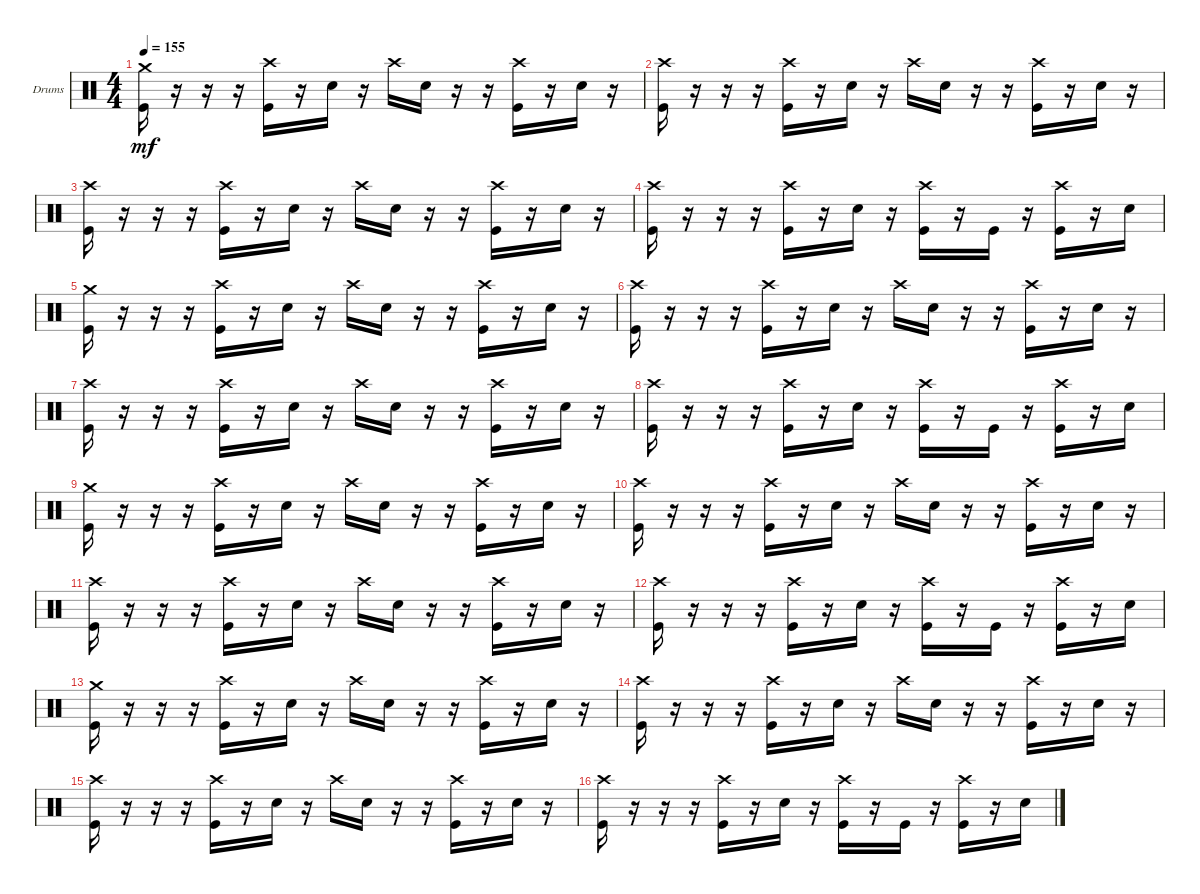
\defaultSystemsLayout 4
\bracketExtendMode groupsimilarinstruments
\firstSystemTrackNameOrientation horizontal
\otherSystemsTrackNameOrientation horizontal
\track ("Drumkit" "Drums") {instrument percussion}
\staff {score}
\articulation defaults
\ts (4 4)
\tempo 155
\clef neutral
\ks c
("Kick (hit)" "Crash medium (hit)").16{dy mf} r.16 r.16 r.16 ("Kick (hit)" "Crash high (hit)").16 r.16 "Snare (hit) 2".16 r.16 "Crash high (hit)".16 "Snare (hit) 2".16 r.16 r.16 ("Crash high (hit)" "Kick (hit)").16 r.16 "Snare (hit) 2".16 r.16 |
("Kick (hit)" "Crash high (hit)").16 r.16 r.16 r.16 ("Kick (hit)" "Crash high (hit)").16 r.16 "Snare (hit) 2".16 r.16 "Crash high (hit)".16 "Snare (hit) 2".16 r.16 r.16 ("Crash high (hit)" "Kick (hit)").16 r.16 "Snare (hit) 2".16 r.16 |
("Kick (hit)" "Crash high (hit)").16 r.16 r.16 r.16 ("Kick (hit)" "Crash high (hit)").16 r.16 "Snare (hit) 2".16 r.16 "Crash high (hit)".16 "Snare (hit) 2".16 r.16 r.16 ("Crash high (hit)" "Kick (hit)").16 r.16 "Snare (hit) 2".16 r.16 |
("Kick (hit)" "Crash high (hit)").16 r.16 r.16 r.16 ("Kick (hit)" "Crash high (hit)").16 r.16 "Snare (hit) 2".16 r.16 ("Kick (hit)" "Crash high (hit)").16 r.16 "Kick (hit)".16 r.16 ("Kick (hit)" "Crash high (hit)").16 r.16 "Snare (hit) 2".16 |
("Kick (hit)" "Crash medium (hit)").16 r.16 r.16 r.16 ("Kick (hit)" "Crash high (hit)").16 r.16 "Snare (hit) 2".16 r.16 "Crash high (hit)".16 "Snare (hit) 2".16 r.16 r.16 ("Crash high (hit)" "Kick (hit)").16 r.16 "Snare (hit) 2".16 r.16 |
("Kick (hit)" "Crash high (hit)").16 r.16 r.16 r.16 ("Kick (hit)" "Crash high (hit)").16 r.16 "Snare (hit) 2".16 r.16 "Crash high (hit)".16 "Snare (hit) 2".16 r.16 r.16 ("Crash high (hit)" "Kick (hit)").16 r.16 "Snare (hit) 2".16 r.16 |
("Kick (hit)" "Crash high (hit)").16 r.16 r.16 r.16 ("Kick (hit)" "Crash high (hit)").16 r.16 "Snare (hit) 2".16 r.16 "Crash high (hit)".16 "Snare (hit) 2".16 r.16 r.16 ("Crash high (hit)" "Kick (hit)").16 r.16 "Snare (hit) 2".16 r.16 |
("Kick (hit)" "Crash high (hit)").16 r.16 r.16 r.16 ("Kick (hit)" "Crash high (hit)").16 r.16 "Snare (hit) 2".16 r.16 ("Kick (hit)" "Crash high (hit)").16 r.16 "Kick (hit)".16 r.16 ("Kick (hit)" "Crash high (hit)").16 r.16 "Snare (hit) 2".16 |
("Kick (hit)" "Crash medium (hit)").16 r.16 r.16 r.16 ("Kick (hit)" "Crash high (hit)").16 r.16 "Snare (hit) 2".16 r.16 "Crash high (hit)".16 "Snare (hit) 2".16 r.16 r.16 ("Crash high (hit)" "Kick (hit)").16 r.16 "Snare (hit) 2".16 r.16 |
("Kick (hit)" "Crash high (hit)").16 r.16 r.16 r.16 ("Kick (hit)" "Crash high (hit)").16 r.16 "Snare (hit) 2".16 r.16 "Crash high (hit)".16 "Snare (hit) 2".16 r.16 r.16 ("Crash high (hit)" "Kick (hit)").16 r.16 "Snare (hit) 2".16 r.16 |
("Kick (hit)" "Crash high (hit)").16 r.16 r.16 r.16 ("Kick (hit)" "Crash high (hit)").16 r.16 "Snare (hit) 2".16 r.16 "Crash high (hit)".16 "Snare (hit) 2".16 r.16 r.16 ("Crash high (hit)" "Kick (hit)").16 r.16 "Snare (hit) 2".16 r.16 |
("Kick (hit)" "Crash high (hit)").16 r.16 r.16 r.16 ("Kick (hit)" "Crash high (hit)").16 r.16 "Snare (hit) 2".16 r.16 ("Kick (hit)" "Crash high (hit)").16 r.16 "Kick (hit)".16 r.16 ("Kick (hit)" "Crash high (hit)").16 r.16 "Snare (hit) 2".16 |
("Kick (hit)" "Crash medium (hit)").16 r.16 r.16 r.16 ("Kick (hit)" "Crash high (hit)").16 r.16 "Snare (hit) 2".16 r.16 "Crash high (hit)".16 "Snare (hit) 2".16 r.16 r.16 ("Crash high (hit)" "Kick (hit)").16 r.16 "Snare (hit) 2".16 r.16 |
("Kick (hit)" "Crash high (hit)").16 r.16 r.16 r.16 ("Kick (hit)" "Crash high (hit)").16 r.16 "Snare (hit) 2".16 r.16 "Crash high (hit)".16 "Snare (hit) 2".16 r.16 r.16 ("Crash high (hit)" "Kick (hit)").16 r.16 "Snare (hit) 2".16 r.16 |
("Kick (hit)" "Crash high (hit)").16 r.16 r.16 r.16 ("Kick (hit)" "Crash high (hit)").16 r.16 "Snare (hit) 2".16 r.16 "Crash high (hit)".16 "Snare (hit) 2".16 r.16 r.16 ("Crash high (hit)" "Kick (hit)").16 r.16 "Snare (hit) 2".16 r.16 |
("Kick (hit)" "Crash high (hit)").16 r.16 r.16 r.16 ("Kick (hit)" "Crash high (hit)").16 r.16 "Snare (hit) 2".16 r.16 ("Kick (hit)" "Crash high (hit)").16 r.16 "Kick (hit)".16 r.16 ("Kick (hit)" "Crash high (hit)").16 r.16 "Snare (hit) 2".16
